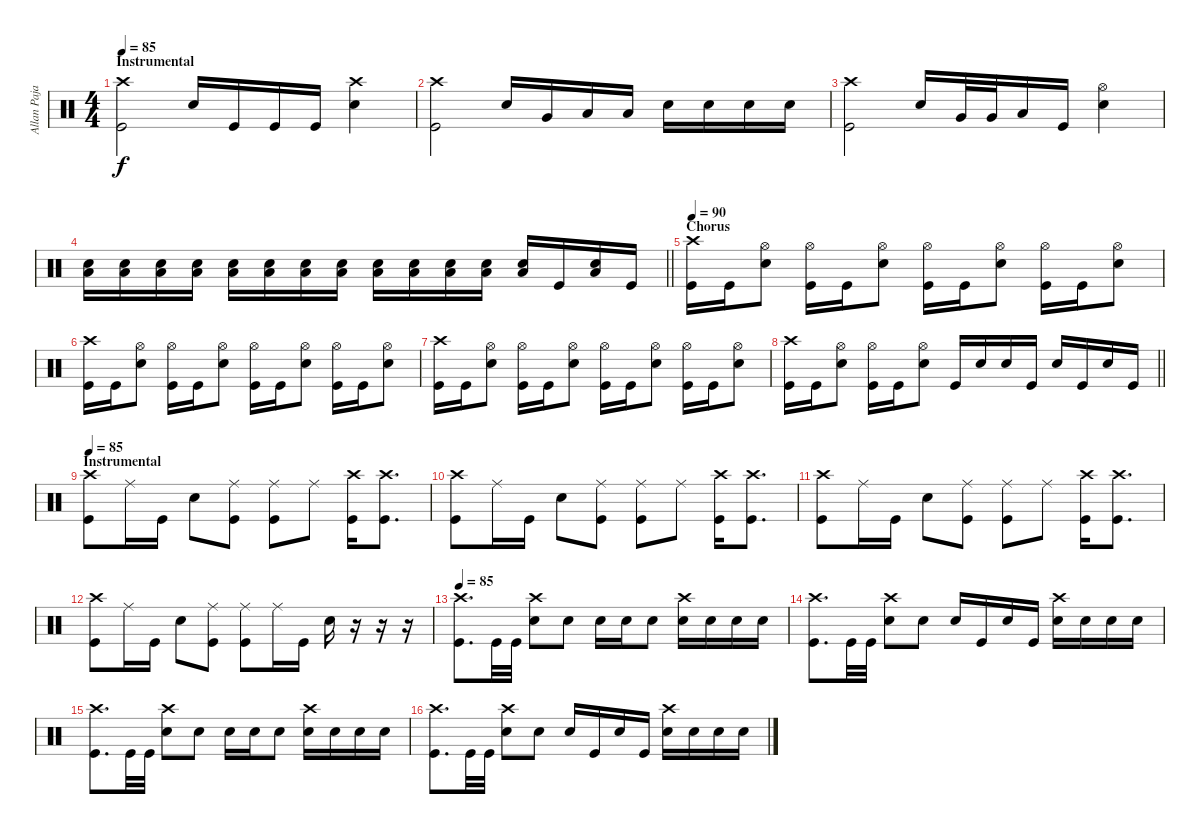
\track ("Allan Pajarin (Drums)" "Allan Paja") {instrument percussion}
\staff {score}
\articulation defaults
\ts (4 4)
\section ("" "Instrumental")
\tempo 85
\clef neutral
\ks c
("Crash high (hit)" "Kick (hit)").2{dy f} "Electric Snare (hit)".16 "Kick (hit)".16 "Kick (hit)".16 "Kick (hit)".16 ("Electric Snare (hit)" "Crash high (hit)").4 |
("Crash high (hit)" "Kick (hit)").2 "Electric Snare (hit)".16 "Very Low Tom (hit)".16 "Low Floor Tom (hit)".16 "Low Floor Tom (hit)".16 "Electric Snare (hit)".16 "Electric Snare (hit)".16 "Electric Snare (hit)".16 "Electric Snare (hit)".16 |
("Crash high (hit)" "Kick (hit)").2 "Electric Snare (hit)".16 "Very Low Tom (hit)".32 "Very Low Tom (hit)".32 "Low Floor Tom (hit)".16 "Kick (hit)".16 ("Electric Snare (hit)" "Hi-Hat (open)").4 |
\barLineRight lightlight
("Low Floor Tom (hit)" "Electric Snare (hit)").16{volume 16} ("Low Floor Tom (hit)" "Electric Snare (hit)").16 ("Low Floor Tom (hit)" "Electric Snare (hit)").16 ("Low Floor Tom (hit)" "Electric Snare (hit)").16 ("Low Floor Tom (hit)" "Electric Snare (hit)").16 ("Low Floor Tom (hit)" "Electric Snare (hit)").16 ("Low Floor Tom (hit)" "Electric Snare (hit)").16 ("Low Floor Tom (hit)" "Electric Snare (hit)").16 ("Low Floor Tom (hit)" "Electric Snare (hit)").16 ("Low Floor Tom (hit)" "Electric Snare (hit)").16 ("Low Floor Tom (hit)" "Electric Snare (hit)").16 ("Low Floor Tom (hit)" "Electric Snare (hit)").16 ("Electric Snare (hit)" "Low Floor Tom (hit)").16 "Kick (hit)".16 ("Electric Snare (hit)" "Low Floor Tom (hit)").16 "Kick (hit)".16 |
\section ("" "Chorus")
\tempo 90
("Kick (hit)" "Crash high (hit)").16 "Kick (hit)".16 ("Hi-Hat (open)" "Electric Snare (hit)").8 ("Kick (hit)" "Hi-Hat (open)").16 "Kick (hit)".16 ("Hi-Hat (open)" "Electric Snare (hit)").8 ("Kick (hit)" "Hi-Hat (open)").16 "Kick (hit)".16 ("Hi-Hat (open)" "Electric Snare (hit)").8 ("Kick (hit)" "Hi-Hat (open)").16 "Kick (hit)".16 ("Hi-Hat (open)" "Electric Snare (hit)").8 |
("Kick (hit)" "Crash high (hit)").16 "Kick (hit)".16 ("Hi-Hat (open)" "Electric Snare (hit)").8 ("Kick (hit)" "Hi-Hat (open)").16 "Kick (hit)".16 ("Hi-Hat (open)" "Electric Snare (hit)").8 ("Kick (hit)" "Hi-Hat (open)").16 "Kick (hit)".16 ("Hi-Hat (open)" "Electric Snare (hit)").8 ("Kick (hit)" "Hi-Hat (open)").16 "Kick (hit)".16 ("Hi-Hat (open)" "Electric Snare (hit)").8 |
("Kick (hit)" "Crash high (hit)").16 "Kick (hit)".16 ("Hi-Hat (open)" "Electric Snare (hit)").8 ("Kick (hit)" "Hi-Hat (open)").16 "Kick (hit)".16 ("Hi-Hat (open)" "Electric Snare (hit)").8 ("Kick (hit)" "Hi-Hat (open)").16 "Kick (hit)".16 ("Hi-Hat (open)" "Electric Snare (hit)").8 ("Kick (hit)" "Hi-Hat (open)").16 "Kick (hit)".16 ("Hi-Hat (open)" "Electric Snare (hit)").8 |
\barLineRight lightlight
("Kick (hit)" "Crash high (hit)").16 "Kick (hit)".16 ("Hi-Hat (open)" "Electric Snare (hit)").8 ("Kick (hit)" "Hi-Hat (open)").16 "Kick (hit)".16 ("Hi-Hat (open)" "Electric Snare (hit)").8 "Kick (hit)".16 "Electric Snare (hit)".16 "Electric Snare (hit)".16 "Kick (hit)".16 "Electric Snare (hit)".16 "Kick (hit)".16 "Electric Snare (hit)".16 "Kick (hit)".16 |
\section ("" "Instrumental")
\tempo 85
("Kick (hit)" "Crash high (hit)").8 "Ride (middle)".16 "Kick (hit)".16 "Electric Snare (hit)".8 ("Ride (middle)" "Kick (hit)").8 ("Kick (hit)" "Ride (middle)").8 "Ride (middle)".8 ("Crash high (hit)" "Kick (hit)").16 ("Crash high (hit)" "Kick (hit)").8{d} |
("Kick (hit)" "Crash high (hit)").8 "Ride (middle)".16 "Kick (hit)".16 "Electric Snare (hit)".8 ("Ride (middle)" "Kick (hit)").8 ("Kick (hit)" "Ride (middle)").8 "Ride (middle)".8 ("Crash high (hit)" "Kick (hit)").16 ("Crash high (hit)" "Kick (hit)").8{d} |
("Kick (hit)" "Crash high (hit)").8 "Ride (middle)".16 "Kick (hit)".16 "Electric Snare (hit)".8 ("Ride (middle)" "Kick (hit)").8 ("Kick (hit)" "Ride (middle)").8 "Ride (middle)".8 ("Crash high (hit)" "Kick (hit)").16 ("Crash high (hit)" "Kick (hit)").8{d} |
("Kick (hit)" "Crash high (hit)").8 "Ride (middle)".16 "Kick (hit)".16 "Electric Snare (hit)".8 ("Ride (middle)" "Kick (hit)").8 ("Kick (hit)" "Ride (middle)").8 "Ride (middle)".16 "Kick (hit)".16 "Electric Snare (hit)".16 r.16 r.16 r.16 |
\tempo 85
("Crash high (hit)" "Kick (hit)").8{d volume 13} "Kick (hit)".32 "Kick (hit)".32 ("Crash high (hit)" "Electric Snare (hit)").8 "Electric Snare (hit)".8 "Electric Snare (hit)".16 "Electric Snare (hit)".16 "Electric Snare (hit)".8 ("Electric Snare (hit)" "Crash high (hit)").16 "Electric Snare (hit)".16 "Electric Snare (hit)".16 "Electric Snare (hit)".16 |
("Crash high (hit)" "Kick (hit)").8{d} "Kick (hit)".32 "Kick (hit)".32 ("Crash high (hit)" "Electric Snare (hit)").8 "Electric Snare (hit)".8 "Electric Snare (hit)".16 "Kick (hit)".16 "Electric Snare (hit)".16 "Kick (hit)".16 ("Electric Snare (hit)" "Crash high (hit)").16 "Electric Snare (hit)".16 "Electric Snare (hit)".16 "Electric Snare (hit)".16 |
("Crash high (hit)" "Kick (hit)").8{d} "Kick (hit)".32 "Kick (hit)".32 ("Crash high (hit)" "Electric Snare (hit)").8 "Electric Snare (hit)".8 "Electric Snare (hit)".16 "Electric Snare (hit)".16 "Electric Snare (hit)".8 ("Electric Snare (hit)" "Crash high (hit)").16 "Electric Snare (hit)".16 "Electric Snare (hit)".16 "Electric Snare (hit)".16 |
("Crash high (hit)" "Kick (hit)").8{d} "Kick (hit)".32 "Kick (hit)".32 ("Crash high (hit)" "Electric Snare (hit)").8 "Electric Snare (hit)".8 "Electric Snare (hit)".16 "Kick (hit)".16 "Electric Snare (hit)".16 "Kick (hit)".16 ("Electric Snare (hit)" "Crash high (hit)").16 "Electric Snare (hit)".16 "Electric Snare (hit)".16 "Electric Snare (hit)".16
